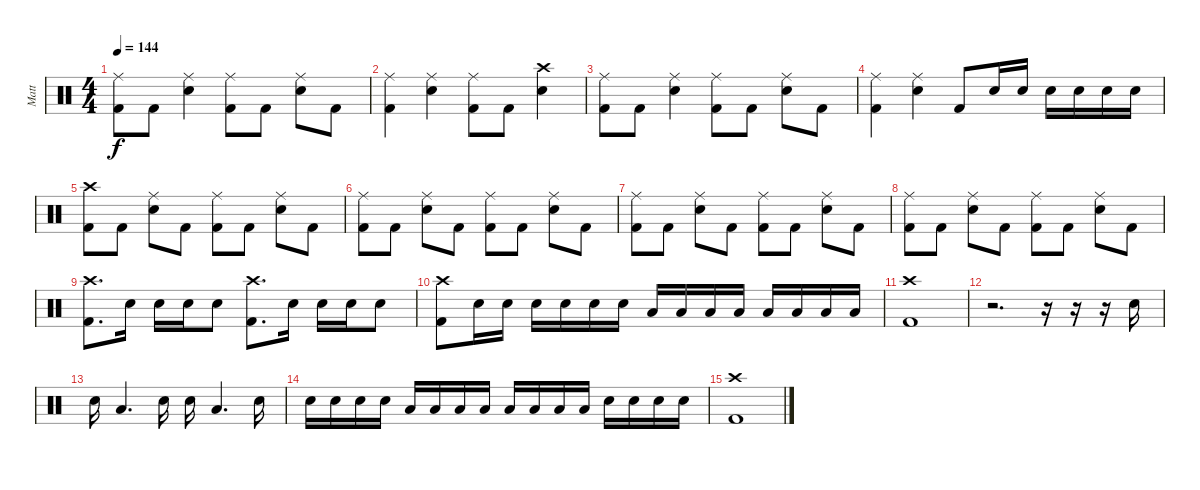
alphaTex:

\track ("Matt" "Matt") {instrument percussion}
\staff {score}
\articulation defaults
\ts (4 4)
\tempo 144
\clef neutral
\ks c
("Ride (middle)" "Kick (hit) 2").8{dy f} "Kick (hit) 2".8 ("Ride (middle)" "Electric Snare (hit)").4 ("Ride (middle)" "Kick (hit) 2").8 "Kick (hit) 2".8 ("Ride (middle)" "Electric Snare (hit)").8 "Kick (hit) 2".8 |
("Ride (middle)" "Kick (hit) 2").4 ("Ride (middle)" "Electric Snare (hit)").4 ("Ride (middle)" "Kick (hit) 2").8 "Kick (hit) 2".8 ("Crash high (hit)" "Electric Snare (hit)").4 |
("Ride (middle)" "Kick (hit) 2").8 "Kick (hit) 2".8 ("Ride (middle)" "Electric Snare (hit)").4 ("Ride (middle)" "Kick (hit) 2").8 "Kick (hit) 2".8 ("Ride (middle)" "Electric Snare (hit)").8 "Kick (hit) 2".8 |
("Ride (middle)" "Kick (hit) 2").4 ("Ride (middle)" "Electric Snare (hit)").4 "Kick (hit) 2".8 "Electric Snare (hit)".16 "Electric Snare (hit)".16 "Electric Snare (hit)".16 "Electric Snare (hit)".16 "Electric Snare (hit)".16 "Electric Snare (hit)".16 |
("Crash high (hit)" "Kick (hit) 2").8 "Kick (hit) 2".8 ("Ride (middle)" "Electric Snare (hit)").8 "Kick (hit) 2".8 ("Ride (middle)" "Kick (hit) 2").8 "Kick (hit) 2".8 ("Ride (middle)" "Electric Snare (hit)").8 "Kick (hit) 2".8 |
("Ride (middle)" "Kick (hit) 2").8 "Kick (hit) 2".8 ("Ride (middle)" "Electric Snare (hit)").8 "Kick (hit) 2".8 ("Ride (middle)" "Kick (hit) 2").8 "Kick (hit) 2".8 ("Ride (middle)" "Electric Snare (hit)").8 "Kick (hit) 2".8 |
("Ride (middle)" "Kick (hit) 2").8 "Kick (hit) 2".8 ("Ride (middle)" "Electric Snare (hit)").8 "Kick (hit) 2".8 ("Ride (middle)" "Kick (hit) 2").8 "Kick (hit) 2".8 ("Ride (middle)" "Electric Snare (hit)").8 "Kick (hit) 2".8 |
("Ride (middle)" "Kick (hit) 2").8 "Kick (hit) 2".8 ("Ride (middle)" "Electric Snare (hit)").8 "Kick (hit) 2".8 ("Ride (middle)" "Kick (hit) 2").8 "Kick (hit) 2".8 ("Ride (middle)" "Electric Snare (hit)").8 "Kick (hit) 2".8 |
("Crash high (hit)" "Kick (hit) 2").8{d} "Electric Snare (hit)".16 "Electric Snare (hit)".16 "Electric Snare (hit)".16 "Electric Snare (hit)".8 ("Crash high (hit)" "Kick (hit) 2").8{d} "Electric Snare (hit)".16 "Electric Snare (hit)".16 "Electric Snare (hit)".16 "Electric Snare (hit)".8 |
("Crash high (hit)" "Kick (hit) 2").8 "Electric Snare (hit)".16 "Electric Snare (hit)".16 "Electric Snare (hit)".16 "Electric Snare (hit)".16 "Electric Snare (hit)".16 "Electric Snare (hit)".16 "Low Tom (hit)".16 "Low Tom (hit)".16 "Low Tom (hit)".16 "Low Tom (hit)".16 "Low Floor Tom (hit)".16 "Low Floor Tom (hit)".16 "Low Floor Tom (hit)".16 "Low Floor Tom (hit)".16 |
("Crash high (hit)" "Kick (hit) 2").1 |
r.2{d} r.16 r.16 r.16 "Electric Snare (hit)".16 |
"Electric Snare (hit)".16 "Low Tom (hit)".4{d} "Electric Snare (hit)".16 "Electric Snare (hit)".16 "Low Tom (hit)".4{d} "Electric Snare (hit)".16 |
"Electric Snare (hit)".16 "Electric Snare (hit)".16 "Electric Snare (hit)".16 "Electric Snare (hit)".16 "Low Tom (hit)".16 "Low Tom (hit)".16 "Low Tom (hit)".16 "Low Tom (hit)".16 "Low Floor Tom (hit)".16 "Low Floor Tom (hit)".16 "Low Floor Tom (hit)".16 "Low Floor Tom (hit)".16 "Electric Snare (hit)".16 "Electric Snare (hit)".16 "Electric Snare (hit)".16 "Electric Snare (hit)".16 |
("Crash high (hit)" "Kick (hit) 2").1
